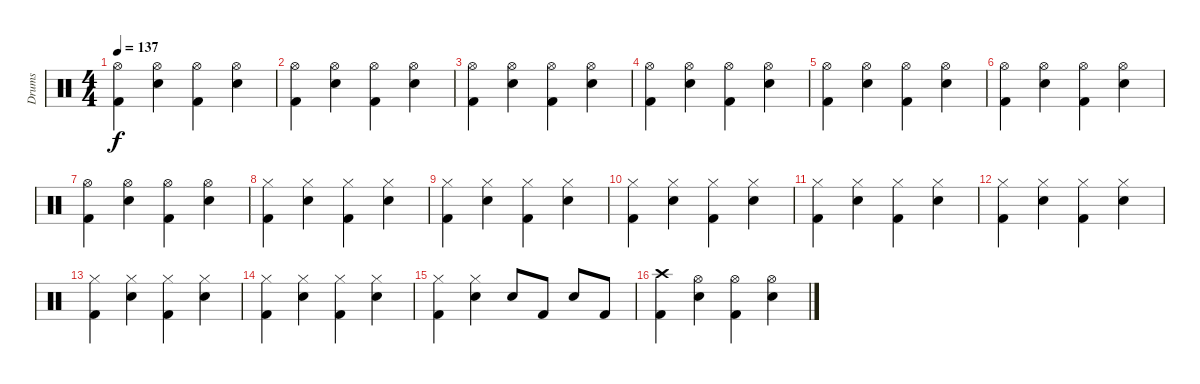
\track ("Drums" "Drums") {instrument percussion}
\staff {score}
\articulation defaults
\ts (4 4)
\tempo 137
\clef neutral
\ks c
("Hi-Hat (open)" "Kick (hit) 2").4{dy f} ("Hi-Hat (open)" "Snare (hit) 2").4 ("Hi-Hat (open)" "Kick (hit) 2").4 ("Hi-Hat (open)" "Snare (hit) 2").4 |
("Hi-Hat (open)" "Kick (hit) 2").4 ("Hi-Hat (open)" "Snare (hit) 2").4 ("Hi-Hat (open)" "Kick (hit) 2").4 ("Hi-Hat (open)" "Snare (hit) 2").4 |
("Hi-Hat (open)" "Kick (hit) 2").4 ("Hi-Hat (open)" "Snare (hit) 2").4 ("Hi-Hat (open)" "Kick (hit) 2").4 ("Hi-Hat (open)" "Snare (hit) 2").4 |
("Hi-Hat (open)" "Kick (hit) 2").4 ("Hi-Hat (open)" "Snare (hit) 2").4 ("Hi-Hat (open)" "Kick (hit) 2").4 ("Hi-Hat (open)" "Snare (hit) 2").4 |
("Hi-Hat (open)" "Kick (hit) 2").4 ("Hi-Hat (open)" "Snare (hit) 2").4 ("Hi-Hat (open)" "Kick (hit) 2").4 ("Hi-Hat (open)" "Snare (hit) 2").4 |
("Hi-Hat (open)" "Kick (hit) 2").4 ("Hi-Hat (open)" "Snare (hit) 2").4 ("Hi-Hat (open)" "Kick (hit) 2").4 ("Hi-Hat (open)" "Snare (hit) 2").4 |
("Hi-Hat (open)" "Kick (hit) 2").4 ("Hi-Hat (open)" "Snare (hit) 2").4 ("Hi-Hat (open)" "Kick (hit) 2").4 ("Hi-Hat (open)" "Snare (hit) 2").4 |
("Hi-Hat (closed)" "Kick (hit) 2").4 ("Hi-Hat (closed)" "Snare (hit) 2").4 ("Hi-Hat (closed)" "Kick (hit) 2").4 ("Hi-Hat (closed)" "Snare (hit) 2").4 |
("Hi-Hat (closed)" "Kick (hit) 2").4 ("Hi-Hat (closed)" "Snare (hit) 2").4 ("Hi-Hat (closed)" "Kick (hit) 2").4 ("Hi-Hat (closed)" "Snare (hit) 2").4 |
("Hi-Hat (closed)" "Kick (hit) 2").4 ("Hi-Hat (closed)" "Snare (hit) 2").4 ("Hi-Hat (closed)" "Kick (hit) 2").4 ("Hi-Hat (closed)" "Snare (hit) 2").4 |
("Hi-Hat (closed)" "Kick (hit) 2").4 ("Hi-Hat (closed)" "Snare (hit) 2").4 ("Hi-Hat (closed)" "Kick (hit) 2").4 ("Hi-Hat (closed)" "Snare (hit) 2").4 |
("Hi-Hat (closed)" "Kick (hit) 2").4 ("Hi-Hat (closed)" "Snare (hit) 2").4 ("Hi-Hat (closed)" "Kick (hit) 2").4 ("Hi-Hat (closed)" "Snare (hit) 2").4 |
("Hi-Hat (closed)" "Kick (hit) 2").4 ("Hi-Hat (closed)" "Snare (hit) 2").4 ("Hi-Hat (closed)" "Kick (hit) 2").4 ("Hi-Hat (closed)" "Snare (hit) 2").4 |
("Hi-Hat (closed)" "Kick (hit) 2").4 ("Hi-Hat (closed)" "Snare (hit) 2").4 ("Hi-Hat (closed)" "Kick (hit) 2").4 ("Hi-Hat (closed)" "Snare (hit) 2").4 |
("Hi-Hat (closed)" "Kick (hit) 2").4 ("Hi-Hat (closed)" "Snare (hit) 2").4 "Snare (hit) 2".8 "Kick (hit) 2".8 "Snare (hit) 2".8 "Kick (hit) 2".8 |
("Crash high (hit)" "Kick (hit) 2").4 ("Hi-Hat (open)" "Snare (hit) 2").4 ("Hi-Hat (open)" "Kick (hit) 2").4 ("Hi-Hat (open)" "Snare (hit) 2").4
